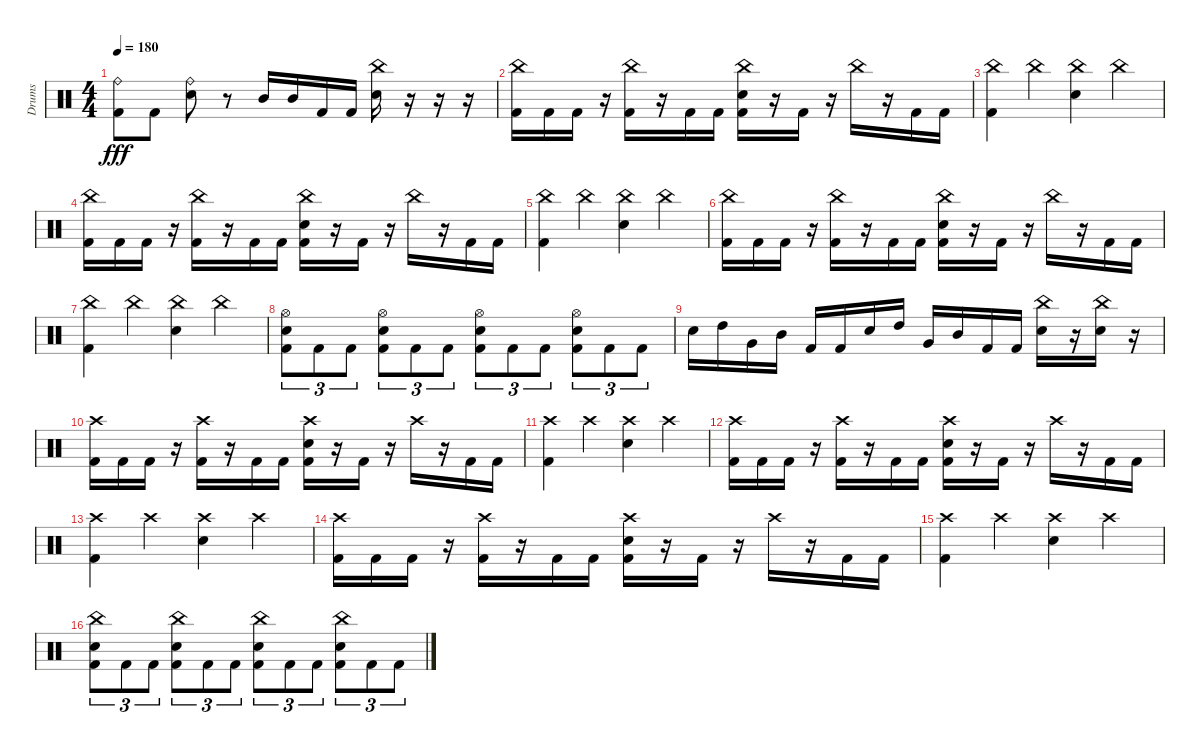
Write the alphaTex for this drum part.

\track ("Drums" "Drums") {instrument percussion}
\staff {score}
\articulation defaults
\ts (4 4)
\tempo 180
\clef neutral
\ks c
("Ride (bell)" "Kick (hit) 2").8{dy fff} "Kick (hit) 2".8 ("Ride (bell)" "Electric Snare (hit)").8 r.8 "Mid Tom (hit)".16 "Mid Tom (hit)".16 "Kick (hit) 2".16 "Kick (hit) 2".16 ("China (hit)" "Electric Snare (hit)").16 r.16 r.16 r.16 |
("China (hit)" "Kick (hit) 2").16 "Kick (hit) 2".16 "Kick (hit) 2".16 r.16 ("China (hit)" "Kick (hit) 2").16 r.16 "Kick (hit) 2".16 "Kick (hit) 2".16 ("China (hit)" "Electric Snare (hit)" "Kick (hit) 2").16 r.16 "Kick (hit) 2".16 r.16 "China (hit)".16 r.16 "Kick (hit) 2".16 "Kick (hit) 2".16 |
("China (hit)" "Kick (hit) 2").4 "China (hit)".4 ("China (hit)" "Electric Snare (hit)").4 "China (hit)".4 |
("China (hit)" "Kick (hit) 2").16 "Kick (hit) 2".16 "Kick (hit) 2".16 r.16 ("China (hit)" "Kick (hit) 2").16 r.16 "Kick (hit) 2".16 "Kick (hit) 2".16 ("China (hit)" "Electric Snare (hit)" "Kick (hit) 2").16 r.16 "Kick (hit) 2".16 r.16 "China (hit)".16 r.16 "Kick (hit) 2".16 "Kick (hit) 2".16 |
("China (hit)" "Kick (hit) 2").4 "China (hit)".4 ("China (hit)" "Electric Snare (hit)").4 "China (hit)".4 |
("China (hit)" "Kick (hit) 2").16 "Kick (hit) 2".16 "Kick (hit) 2".16 r.16 ("China (hit)" "Kick (hit) 2").16 r.16 "Kick (hit) 2".16 "Kick (hit) 2".16 ("China (hit)" "Electric Snare (hit)" "Kick (hit) 2").16 r.16 "Kick (hit) 2".16 r.16 "China (hit)".16 r.16 "Kick (hit) 2".16 "Kick (hit) 2".16 |
("China (hit)" "Kick (hit) 2").4 "China (hit)".4 ("China (hit)" "Electric Snare (hit)").4 "China (hit)".4 |
("Hi-Hat (open)" "Electric Snare (hit)" "Kick (hit) 2").8{tu (3 2)} "Kick (hit) 2".8{tu (3 2)} "Kick (hit) 2".8{tu (3 2)} ("Hi-Hat (open)" "Electric Snare (hit)" "Kick (hit) 2").8{tu (3 2)} "Kick (hit) 2".8{tu (3 2)} "Kick (hit) 2".8{tu (3 2)} ("Hi-Hat (open)" "Electric Snare (hit)" "Kick (hit) 2").8{tu (3 2)} "Kick (hit) 2".8{tu (3 2)} "Kick (hit) 2".8{tu (3 2)} ("Hi-Hat (open)" "Electric Snare (hit)" "Kick (hit) 2").8{tu (3 2)} "Kick (hit) 2".8{tu (3 2)} "Kick (hit) 2".8{tu (3 2)} |
"Electric Snare (hit)".16 "High Tom (hit)".16 "Very Low Tom (hit)".16 "Mid Tom (hit)".16 "Kick (hit) 2".16 "Kick (hit) 2".16 "Electric Snare (hit)".16 "High Tom (hit)".16 "Very Low Tom (hit)".16 "Mid Tom (hit)".16 "Kick (hit) 2".16 "Kick (hit) 2".16 ("China (hit)" "Electric Snare (hit)").16 r.16 ("China (hit)" "Electric Snare (hit)").16 r.16 |
("Crash high (hit)" "Kick (hit) 2").16 "Kick (hit) 2".16 "Kick (hit) 2".16 r.16 ("Crash high (hit)" "Kick (hit) 2").16 r.16 "Kick (hit) 2".16 "Kick (hit) 2".16 ("Crash high (hit)" "Electric Snare (hit)" "Kick (hit) 2").16 r.16 "Kick (hit) 2".16 r.16 "Crash high (hit)".16 r.16 "Kick (hit) 2".16 "Kick (hit) 2".16 |
("Crash high (hit)" "Kick (hit) 2").4 "Crash high (hit)".4 ("Crash high (hit)" "Electric Snare (hit)").4 "Crash high (hit)".4 |
("Crash high (hit)" "Kick (hit) 2").16 "Kick (hit) 2".16 "Kick (hit) 2".16 r.16 ("Crash high (hit)" "Kick (hit) 2").16 r.16 "Kick (hit) 2".16 "Kick (hit) 2".16 ("Crash high (hit)" "Electric Snare (hit)" "Kick (hit) 2").16 r.16 "Kick (hit) 2".16 r.16 "Crash high (hit)".16 r.16 "Kick (hit) 2".16 "Kick (hit) 2".16 |
("Crash high (hit)" "Kick (hit) 2").4 "Crash high (hit)".4 ("Crash high (hit)" "Electric Snare (hit)").4 "Crash high (hit)".4 |
("Crash high (hit)" "Kick (hit) 2").16 "Kick (hit) 2".16 "Kick (hit) 2".16 r.16 ("Crash high (hit)" "Kick (hit) 2").16 r.16 "Kick (hit) 2".16 "Kick (hit) 2".16 ("Crash high (hit)" "Electric Snare (hit)" "Kick (hit) 2").16 r.16 "Kick (hit) 2".16 r.16 "Crash high (hit)".16 r.16 "Kick (hit) 2".16 "Kick (hit) 2".16 |
("Crash high (hit)" "Kick (hit) 2").4 "Crash high (hit)".4 ("Crash high (hit)" "Electric Snare (hit)").4 "Crash high (hit)".4 |
("China (hit)" "Electric Snare (hit)" "Kick (hit) 2").8{tu (3 2)} "Kick (hit) 2".8{tu (3 2)} "Kick (hit) 2".8{tu (3 2)} ("China (hit)" "Electric Snare (hit)" "Kick (hit) 2").8{tu (3 2)} "Kick (hit) 2".8{tu (3 2)} "Kick (hit) 2".8{tu (3 2)} ("China (hit)" "Electric Snare (hit)" "Kick (hit) 2").8{tu (3 2)} "Kick (hit) 2".8{tu (3 2)} "Kick (hit) 2".8{tu (3 2)} ("China (hit)" "Electric Snare (hit)" "Kick (hit) 2").8{tu (3 2)} "Kick (hit) 2".8{tu (3 2)} "Kick (hit) 2".8{tu (3 2)}
